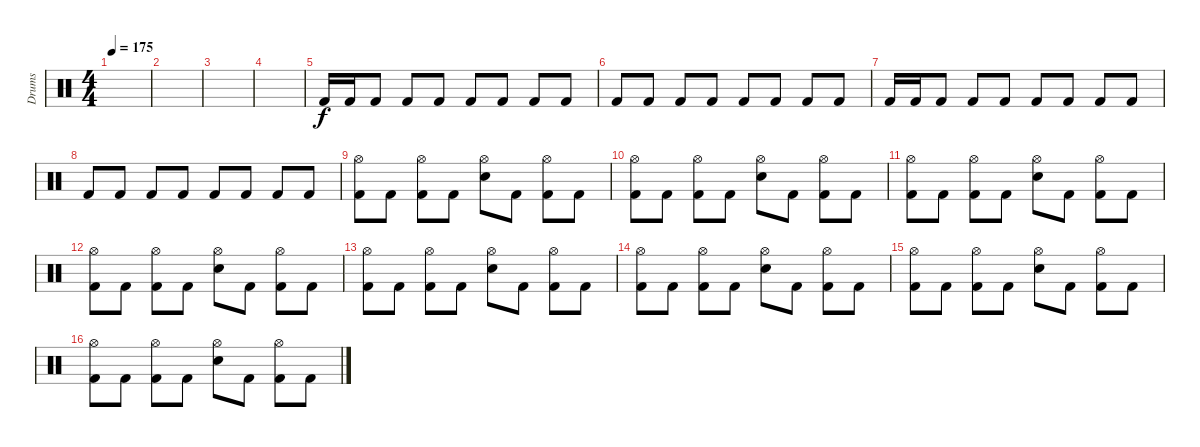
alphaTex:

\track ("Drums" "Drums") {instrument percussion}
\staff {score}
\articulation defaults
\ts (4 4)
\tempo 175
\clef neutral
\ks c
|
|
|
|
"Kick (hit) 2".16 "Kick (hit) 2".16 "Kick (hit) 2".8 "Kick (hit) 2".8 "Kick (hit) 2".8 "Kick (hit) 2".8 "Kick (hit) 2".8 "Kick (hit) 2".8 "Kick (hit) 2".8 |
"Kick (hit) 2".8 "Kick (hit) 2".8 "Kick (hit) 2".8 "Kick (hit) 2".8 "Kick (hit) 2".8 "Kick (hit) 2".8 "Kick (hit) 2".8 "Kick (hit) 2".8 |
"Kick (hit) 2".16 "Kick (hit) 2".16 "Kick (hit) 2".8 "Kick (hit) 2".8 "Kick (hit) 2".8 "Kick (hit) 2".8 "Kick (hit) 2".8 "Kick (hit) 2".8 "Kick (hit) 2".8 |
"Kick (hit) 2".8 "Kick (hit) 2".8 "Kick (hit) 2".8 "Kick (hit) 2".8 "Kick (hit) 2".8 "Kick (hit) 2".8 "Kick (hit) 2".8 "Kick (hit) 2".8 |
("Hi-Hat (open)" "Kick (hit) 2").8 "Kick (hit) 2".8 ("Hi-Hat (open)" "Kick (hit) 2").8 "Kick (hit) 2".8 ("Hi-Hat (open)" "Electric Snare (hit)").8 "Kick (hit) 2".8 ("Hi-Hat (open)" "Kick (hit) 2").8 "Kick (hit) 2".8 |
("Hi-Hat (open)" "Kick (hit) 2").8 "Kick (hit) 2".8 ("Hi-Hat (open)" "Kick (hit) 2").8 "Kick (hit) 2".8 ("Hi-Hat (open)" "Electric Snare (hit)").8 "Kick (hit) 2".8 ("Hi-Hat (open)" "Kick (hit) 2").8 "Kick (hit) 2".8 |
("Hi-Hat (open)" "Kick (hit) 2").8 "Kick (hit) 2".8 ("Hi-Hat (open)" "Kick (hit) 2").8 "Kick (hit) 2".8 ("Hi-Hat (open)" "Electric Snare (hit)").8 "Kick (hit) 2".8 ("Hi-Hat (open)" "Kick (hit) 2").8 "Kick (hit) 2".8 |
("Hi-Hat (open)" "Kick (hit) 2").8 "Kick (hit) 2".8 ("Hi-Hat (open)" "Kick (hit) 2").8 "Kick (hit) 2".8 ("Hi-Hat (open)" "Electric Snare (hit)").8 "Kick (hit) 2".8 ("Hi-Hat (open)" "Kick (hit) 2").8 "Kick (hit) 2".8 |
("Hi-Hat (open)" "Kick (hit) 2").8 "Kick (hit) 2".8 ("Hi-Hat (open)" "Kick (hit) 2").8 "Kick (hit) 2".8 ("Hi-Hat (open)" "Electric Snare (hit)").8 "Kick (hit) 2".8 ("Hi-Hat (open)" "Kick (hit) 2").8 "Kick (hit) 2".8 |
("Hi-Hat (open)" "Kick (hit) 2").8 "Kick (hit) 2".8 ("Hi-Hat (open)" "Kick (hit) 2").8 "Kick (hit) 2".8 ("Hi-Hat (open)" "Electric Snare (hit)").8 "Kick (hit) 2".8 ("Hi-Hat (open)" "Kick (hit) 2").8 "Kick (hit) 2".8 |
("Hi-Hat (open)" "Kick (hit) 2").8 "Kick (hit) 2".8 ("Hi-Hat (open)" "Kick (hit) 2").8 "Kick (hit) 2".8 ("Hi-Hat (open)" "Electric Snare (hit)").8 "Kick (hit) 2".8 ("Hi-Hat (open)" "Kick (hit) 2").8 "Kick (hit) 2".8 |
("Hi-Hat (open)" "Kick (hit) 2").8 "Kick (hit) 2".8 ("Hi-Hat (open)" "Kick (hit) 2").8 "Kick (hit) 2".8 ("Hi-Hat (open)" "Electric Snare (hit)").8 "Kick (hit) 2".8 ("Hi-Hat (open)" "Kick (hit) 2").8 "Kick (hit) 2".8
